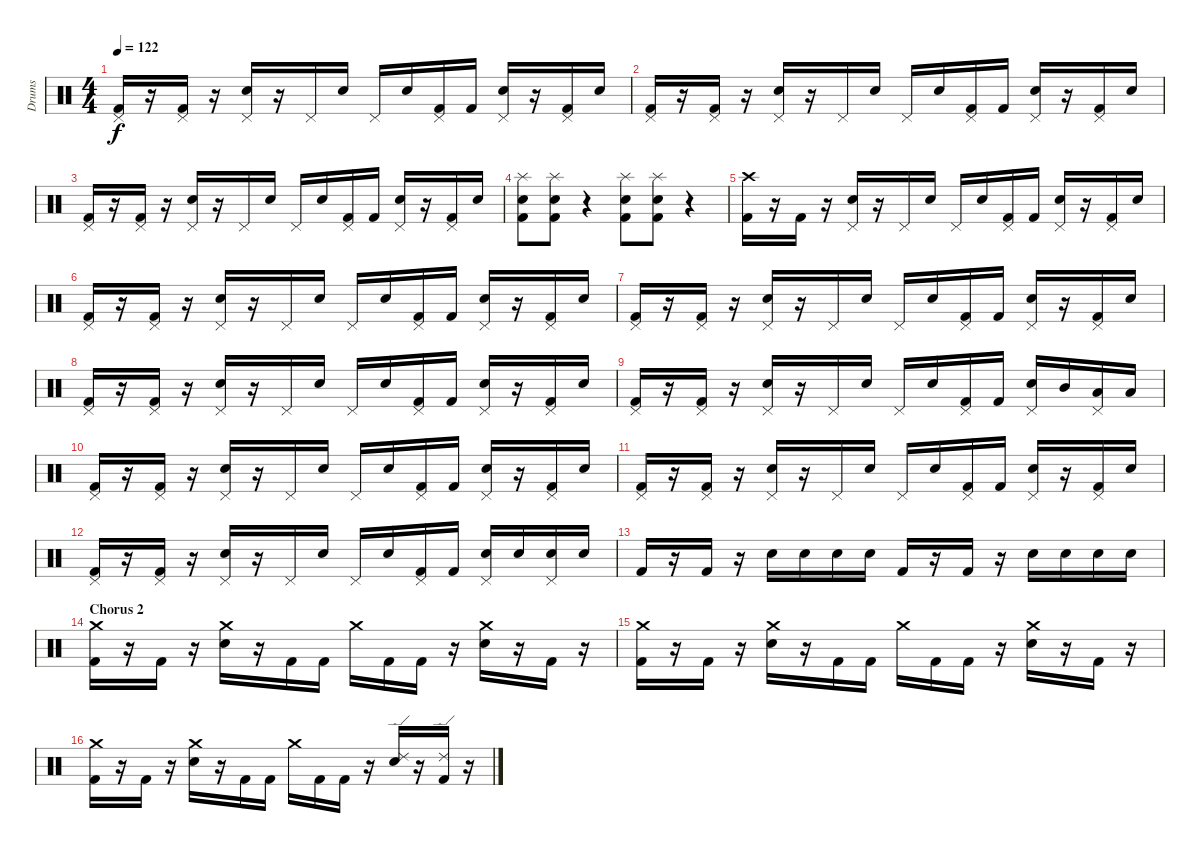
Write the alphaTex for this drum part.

\track ("Drums" "Drums") {instrument percussion}
\staff {score}
\articulation defaults
\ts (4 4)
\tempo 122
\clef neutral
\ks c
("Pedal Hi-Hat (hit)" "Kick (hit) 2").16{dy f} r.16 ("Pedal Hi-Hat (hit)" "Kick (hit) 2").16 r.16 ("Pedal Hi-Hat (hit)" "Snare (hit) 2").16 r.16 "Pedal Hi-Hat (hit)".16 "Snare (hit) 2".16 "Pedal Hi-Hat (hit)".16 "Snare (hit) 2".16 ("Pedal Hi-Hat (hit)" "Kick (hit) 2").16 "Kick (hit) 2".16 ("Pedal Hi-Hat (hit)" "Snare (hit) 2").16 r.16 ("Pedal Hi-Hat (hit)" "Kick (hit) 2").16 "Snare (hit) 2".16 |
("Pedal Hi-Hat (hit)" "Kick (hit) 2").16 r.16 ("Pedal Hi-Hat (hit)" "Kick (hit) 2").16 r.16 ("Pedal Hi-Hat (hit)" "Snare (hit) 2").16 r.16 "Pedal Hi-Hat (hit)".16 "Snare (hit) 2".16 "Pedal Hi-Hat (hit)".16 "Snare (hit) 2".16 ("Pedal Hi-Hat (hit)" "Kick (hit) 2").16 "Kick (hit) 2".16 ("Pedal Hi-Hat (hit)" "Snare (hit) 2").16 r.16 ("Pedal Hi-Hat (hit)" "Kick (hit) 2").16 "Snare (hit) 2".16 |
("Pedal Hi-Hat (hit)" "Kick (hit) 2").16 r.16 ("Pedal Hi-Hat (hit)" "Kick (hit) 2").16 r.16 ("Pedal Hi-Hat (hit)" "Snare (hit) 2").16 r.16 "Pedal Hi-Hat (hit)".16 "Snare (hit) 2".16 "Pedal Hi-Hat (hit)".16 "Snare (hit) 2".16 ("Pedal Hi-Hat (hit)" "Kick (hit) 2").16 "Kick (hit) 2".16 ("Pedal Hi-Hat (hit)" "Snare (hit) 2").16 r.16 ("Pedal Hi-Hat (hit)" "Kick (hit) 2").16 "Snare (hit) 2".16 |
("Splash (hit)" "Snare (hit) 2" "Kick (hit) 2").8 ("Splash (hit)" "Snare (hit) 2" "Kick (hit) 2").8 r.4 ("Splash (hit)" "Snare (hit) 2" "Kick (hit) 2").8 ("Splash (hit)" "Snare (hit) 2" "Kick (hit) 2").8 r.4 |
("Crash high (hit)" "Kick (hit) 2").16 r.16 "Kick (hit) 2".16 r.16 ("Pedal Hi-Hat (hit)" "Snare (hit) 2").16 r.16 "Pedal Hi-Hat (hit)".16 "Snare (hit) 2".16 "Pedal Hi-Hat (hit)".16 "Snare (hit) 2".16 ("Pedal Hi-Hat (hit)" "Kick (hit) 2").16 "Kick (hit) 2".16 ("Pedal Hi-Hat (hit)" "Snare (hit) 2").16 r.16 ("Pedal Hi-Hat (hit)" "Kick (hit) 2").16 "Snare (hit) 2".16 |
("Pedal Hi-Hat (hit)" "Kick (hit) 2").16 r.16 ("Pedal Hi-Hat (hit)" "Kick (hit) 2").16 r.16 ("Pedal Hi-Hat (hit)" "Snare (hit) 2").16 r.16 "Pedal Hi-Hat (hit)".16 "Snare (hit) 2".16 "Pedal Hi-Hat (hit)".16 "Snare (hit) 2".16 ("Pedal Hi-Hat (hit)" "Kick (hit) 2").16 "Kick (hit) 2".16 ("Pedal Hi-Hat (hit)" "Snare (hit) 2").16 r.16 ("Pedal Hi-Hat (hit)" "Kick (hit) 2").16 "Snare (hit) 2".16 |
("Pedal Hi-Hat (hit)" "Kick (hit) 2").16 r.16 ("Pedal Hi-Hat (hit)" "Kick (hit) 2").16 r.16 ("Pedal Hi-Hat (hit)" "Snare (hit) 2").16 r.16 "Pedal Hi-Hat (hit)".16 "Snare (hit) 2".16 "Pedal Hi-Hat (hit)".16 "Snare (hit) 2".16 ("Pedal Hi-Hat (hit)" "Kick (hit) 2").16 "Kick (hit) 2".16 ("Pedal Hi-Hat (hit)" "Snare (hit) 2").16 r.16 ("Pedal Hi-Hat (hit)" "Kick (hit) 2").16 "Snare (hit) 2".16 |
("Pedal Hi-Hat (hit)" "Kick (hit) 2").16 r.16 ("Pedal Hi-Hat (hit)" "Kick (hit) 2").16 r.16 ("Pedal Hi-Hat (hit)" "Snare (hit) 2").16 r.16 "Pedal Hi-Hat (hit)".16 "Snare (hit) 2".16 "Pedal Hi-Hat (hit)".16 "Snare (hit) 2".16 ("Pedal Hi-Hat (hit)" "Kick (hit) 2").16 "Kick (hit) 2".16 ("Pedal Hi-Hat (hit)" "Snare (hit) 2").16 r.16 ("Pedal Hi-Hat (hit)" "Kick (hit) 2").16 "Snare (hit) 2".16 |
("Pedal Hi-Hat (hit)" "Kick (hit) 2").16 r.16 ("Pedal Hi-Hat (hit)" "Kick (hit) 2").16 r.16 ("Pedal Hi-Hat (hit)" "Snare (hit) 2").16 r.16 "Pedal Hi-Hat (hit)".16 "Snare (hit) 2".16 "Pedal Hi-Hat (hit)".16 "Snare (hit) 2".16 ("Pedal Hi-Hat (hit)" "Kick (hit) 2").16 "Kick (hit) 2".16 ("Pedal Hi-Hat (hit)" "Snare (hit) 2").16 "Mid Tom (hit)".16 ("Pedal Hi-Hat (hit)" "Low Tom (hit)").16 "Low Tom (hit)".16 |
("Pedal Hi-Hat (hit)" "Kick (hit) 2").16 r.16 ("Pedal Hi-Hat (hit)" "Kick (hit) 2").16 r.16 ("Pedal Hi-Hat (hit)" "Snare (hit) 2").16 r.16 "Pedal Hi-Hat (hit)".16 "Snare (hit) 2".16 "Pedal Hi-Hat (hit)".16 "Snare (hit) 2".16 ("Pedal Hi-Hat (hit)" "Kick (hit) 2").16 "Kick (hit) 2".16 ("Pedal Hi-Hat (hit)" "Snare (hit) 2").16 r.16 ("Pedal Hi-Hat (hit)" "Kick (hit) 2").16 "Snare (hit) 2".16 |
("Pedal Hi-Hat (hit)" "Kick (hit) 2").16 r.16 ("Pedal Hi-Hat (hit)" "Kick (hit) 2").16 r.16 ("Pedal Hi-Hat (hit)" "Snare (hit) 2").16 r.16 "Pedal Hi-Hat (hit)".16 "Snare (hit) 2".16 "Pedal Hi-Hat (hit)".16 "Snare (hit) 2".16 ("Pedal Hi-Hat (hit)" "Kick (hit) 2").16 "Kick (hit) 2".16 ("Pedal Hi-Hat (hit)" "Snare (hit) 2").16 r.16 ("Pedal Hi-Hat (hit)" "Kick (hit) 2").16 "Snare (hit) 2".16 |
("Pedal Hi-Hat (hit)" "Kick (hit) 2").16 r.16 ("Pedal Hi-Hat (hit)" "Kick (hit) 2").16 r.16 ("Pedal Hi-Hat (hit)" "Snare (hit) 2").16 r.16 "Pedal Hi-Hat (hit)".16 "Snare (hit) 2".16 "Pedal Hi-Hat (hit)".16 "Snare (hit) 2".16 ("Pedal Hi-Hat (hit)" "Kick (hit) 2").16 "Kick (hit) 2".16 ("Pedal Hi-Hat (hit)" "Snare (hit) 2").16 "Snare (hit) 2".16 ("Pedal Hi-Hat (hit)" "Snare (hit) 2").16 "Snare (hit) 2".16 |
"Kick (hit) 2".16 r.16 "Kick (hit) 2".16 r.16 "Snare (hit) 2".16 "Snare (hit) 2".16 "Snare (hit) 2".16 "Snare (hit) 2".16 "Kick (hit) 2".16 r.16 "Kick (hit) 2".16 r.16 "Snare (hit) 2".16 "Snare (hit) 2".16 "Snare (hit) 2".16 "Snare (hit) 2".16 |
\section ("" "Chorus 2")
("Crash medium (hit)" "Kick (hit) 2").16 r.16 "Kick (hit) 2".16 r.16 ("Crash medium (hit)" "Snare (hit) 2").16 r.16 "Kick (hit) 2".16 "Kick (hit) 2".16 "Crash medium (hit)".16 "Kick (hit) 2".16 "Kick (hit) 2".16 r.16 ("Crash medium (hit)" "Snare (hit) 2").16 r.16 "Kick (hit) 2".16 r.16 |
("Crash medium (hit)" "Kick (hit) 2").16 r.16 "Kick (hit) 2".16 r.16 ("Crash medium (hit)" "Snare (hit) 2").16 r.16 "Kick (hit) 2".16 "Kick (hit) 2".16 "Crash medium (hit)".16 "Kick (hit) 2".16 "Kick (hit) 2".16 r.16 ("Crash medium (hit)" "Snare (hit) 2").16 r.16 "Kick (hit) 2".16 r.16 |
("Crash medium (hit)" "Kick (hit) 2").16 r.16 "Kick (hit) 2".16 r.16 ("Crash medium (hit)" "Snare (hit) 2").16 r.16 "Kick (hit) 2".16 "Kick (hit) 2".16 "Crash medium (hit)".16 "Kick (hit) 2".16 "Kick (hit) 2".16 r.16 ("Ride (edge) 2" "Snare (hit) 2").16 r.16 ("Ride (edge) 2" "Kick (hit) 2").16 r.16
